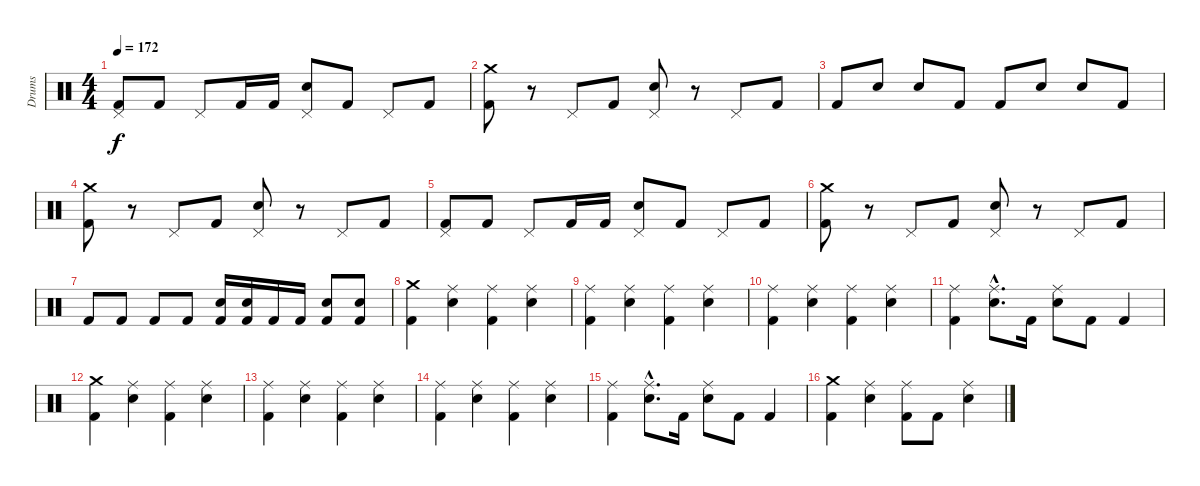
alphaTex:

\track ("Drums" "Drums") {instrument percussion}
\staff {score}
\articulation defaults
\ts (4 4)
\tempo 172
\clef neutral
\ks c
("Pedal Hi-Hat (hit)" "Kick (hit) 2").8{dy f} "Kick (hit) 2".8 "Pedal Hi-Hat (hit)".8 "Kick (hit) 2".16 "Kick (hit) 2".16 ("Pedal Hi-Hat (hit)" "Electric Snare (hit)").8 "Kick (hit) 2".8 "Pedal Hi-Hat (hit)".8 "Kick (hit) 2".8 |
("Crash medium (hit)" "Kick (hit) 2").8 r.8 "Pedal Hi-Hat (hit)".8 "Kick (hit) 2".8 ("Pedal Hi-Hat (hit)" "Electric Snare (hit)").8 r.8 "Pedal Hi-Hat (hit)".8 "Kick (hit) 2".8 |
"Kick (hit) 2".8 "Electric Snare (hit)".8 "Electric Snare (hit)".8 "Kick (hit) 2".8 "Kick (hit) 2".8 "Electric Snare (hit)".8 "Electric Snare (hit)".8 "Kick (hit) 2".8 |
("Crash medium (hit)" "Kick (hit) 2").8 r.8 "Pedal Hi-Hat (hit)".8 "Kick (hit) 2".8 ("Pedal Hi-Hat (hit)" "Electric Snare (hit)").8 r.8 "Pedal Hi-Hat (hit)".8 "Kick (hit) 2".8 |
("Pedal Hi-Hat (hit)" "Kick (hit) 2").8 "Kick (hit) 2".8 "Pedal Hi-Hat (hit)".8 "Kick (hit) 2".16 "Kick (hit) 2".16 ("Pedal Hi-Hat (hit)" "Electric Snare (hit)").8 "Kick (hit) 2".8 "Pedal Hi-Hat (hit)".8 "Kick (hit) 2".8 |
("Crash medium (hit)" "Kick (hit) 2").8 r.8 "Pedal Hi-Hat (hit)".8 "Kick (hit) 2".8 ("Pedal Hi-Hat (hit)" "Electric Snare (hit)").8 r.8 "Pedal Hi-Hat (hit)".8 "Kick (hit) 2".8 |
"Kick (hit) 2".8 "Kick (hit) 2".8 "Kick (hit) 2".8 "Kick (hit) 2".8 ("Electric Snare (hit)" "Kick (hit) 2").16 ("Electric Snare (hit)" "Kick (hit) 2").16 "Kick (hit) 2".16 "Kick (hit) 2".16 ("Electric Snare (hit)" "Kick (hit) 2").8 ("Electric Snare (hit)" "Kick (hit) 2").8 |
\section ("" "")
("Crash medium (hit)" "Kick (hit) 2").4 ("Ride (middle)" "Electric Snare (hit)").4 ("Ride (middle)" "Kick (hit) 2").4 ("Ride (middle)" "Electric Snare (hit)").4 |
("Ride (middle)" "Kick (hit) 2").4 ("Ride (middle)" "Electric Snare (hit)").4 ("Ride (middle)" "Kick (hit) 2").4 ("Ride (middle)" "Electric Snare (hit)").4 |
("Ride (middle)" "Kick (hit) 2").4 ("Ride (middle)" "Electric Snare (hit)").4 ("Ride (middle)" "Kick (hit) 2").4 ("Ride (middle)" "Electric Snare (hit)").4 |
("Ride (middle)" "Kick (hit) 2").4 ("Ride (middle)"{hac} "Electric Snare (hit)"{hac}).8{d} "Kick (hit) 2".16 ("Ride (middle)" "Electric Snare (hit)").8 "Kick (hit) 2".8 "Kick (hit) 2".4 |
("Crash medium (hit)" "Kick (hit) 2").4 ("Ride (middle)" "Electric Snare (hit)").4 ("Ride (middle)" "Kick (hit) 2").4 ("Ride (middle)" "Electric Snare (hit)").4 |
("Ride (middle)" "Kick (hit) 2").4 ("Ride (middle)" "Electric Snare (hit)").4 ("Ride (middle)" "Kick (hit) 2").4 ("Ride (middle)" "Electric Snare (hit)").4 |
("Ride (middle)" "Kick (hit) 2").4 ("Ride (middle)" "Electric Snare (hit)").4 ("Ride (middle)" "Kick (hit) 2").4 ("Ride (middle)" "Electric Snare (hit)").4 |
("Ride (middle)" "Kick (hit) 2").4 ("Ride (middle)"{hac} "Electric Snare (hit)"{hac}).8{d} "Kick (hit) 2".16 ("Ride (middle)" "Electric Snare (hit)").8 "Kick (hit) 2".8 "Kick (hit) 2".4 |
("Crash medium (hit)" "Kick (hit) 2").4 ("Ride (middle)" "Electric Snare (hit)").4 ("Ride (middle)" "Kick (hit) 2").8 "Kick (hit) 2".8 ("Ride (middle)" "Electric Snare (hit)").4
